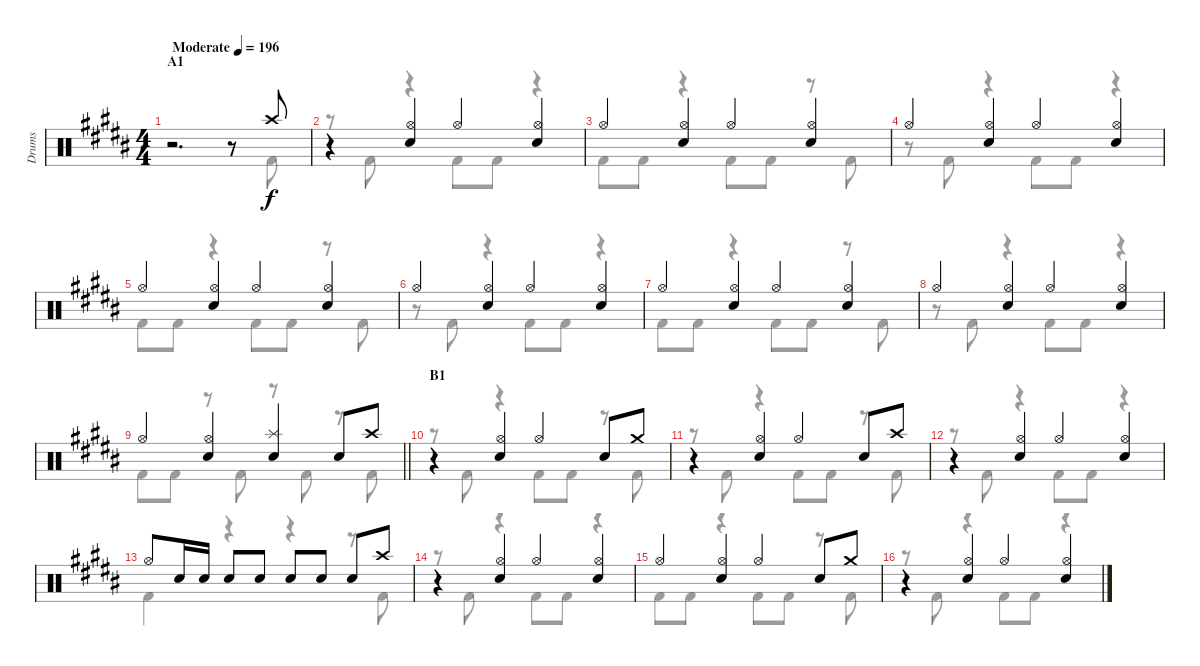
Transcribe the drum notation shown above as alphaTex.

\track ("Drums" "Drums") {instrument percussion}
\staff {score}
\articulation defaults
\voice
\ts (4 4)
\section ("" "A1")
\tempo (196 "Moderate")
\clef neutral
\ks b
r.2{d dy f} r.8 "Crash high (hit)".8 |
r.4 ("Hi-Hat (open)" "Electric Snare (hit)").4 "Hi-Hat (open)".4 ("Hi-Hat (open)" "Electric Snare (hit)").4 |
"Hi-Hat (open)".4 ("Hi-Hat (open)" "Electric Snare (hit)").4 "Hi-Hat (open)".4 ("Hi-Hat (open)" "Electric Snare (hit)").4 |
"Hi-Hat (open)".4 ("Hi-Hat (open)" "Electric Snare (hit)").4 "Hi-Hat (open)".4 ("Hi-Hat (open)" "Electric Snare (hit)").4 |
"Hi-Hat (open)".4 ("Hi-Hat (open)" "Electric Snare (hit)").4 "Hi-Hat (open)".4 ("Hi-Hat (open)" "Electric Snare (hit)").4 |
"Hi-Hat (open)".4 ("Hi-Hat (open)" "Electric Snare (hit)").4 "Hi-Hat (open)".4 ("Hi-Hat (open)" "Electric Snare (hit)").4 |
"Hi-Hat (open)".4 ("Hi-Hat (open)" "Electric Snare (hit)").4 "Hi-Hat (open)".4 ("Hi-Hat (open)" "Electric Snare (hit)").4 |
"Hi-Hat (open)".4 ("Hi-Hat (open)" "Electric Snare (hit)").4 "Hi-Hat (open)".4 ("Hi-Hat (open)" "Electric Snare (hit)").4 |
\barLineRight lightlight "Hi-Hat (open)".4
("Hi-Hat (open)" "Electric Snare (hit)").4 ("Splash (hit)" "Electric Snare (hit)").4 "Electric Snare (hit)".8 "Crash high (hit)".8 |
\section ("" "B1")
r.4 ("Hi-Hat (open)" "Electric Snare (hit)").4 "Hi-Hat (open)".4 "Electric Snare (hit)".8 "Crash medium (hit)".8 |
r.4 ("Hi-Hat (open)" "Electric Snare (hit)").4 "Hi-Hat (open)".4 "Electric Snare (hit)".8 "Crash high (hit)".8 |
r.4 ("Hi-Hat (open)" "Electric Snare (hit)").4 "Hi-Hat (open)".4 ("Hi-Hat (open)" "Electric Snare (hit)").4 |
"Hi-Hat (open)".8 "Electric Snare (hit)".16 "Electric Snare (hit)".16 "Electric Snare (hit)".8 "Electric Snare (hit)".8 "Electric Snare (hit)".8 "Electric Snare (hit)".8 "Electric Snare (hit)".8 "Crash high (hit)".8 |
r.4 ("Hi-Hat (open)" "Electric Snare (hit)").4 "Hi-Hat (open)".4 ("Hi-Hat (open)" "Electric Snare (hit)").4 |
"Hi-Hat (open)".4 ("Hi-Hat (open)" "Electric Snare (hit)").4 "Hi-Hat (open)".4 "Electric Snare (hit)".8 "Crash medium (hit)".8 |
r.4 ("Hi-Hat (open)" "Electric Snare (hit)").4 "Hi-Hat (open)".4 ("Hi-Hat (open)" "Electric Snare (hit)").4
\voice
\clef neutral
\ottava regular
\simile none
\ks b
r.2{d dy f} r.8 "Kick (hit) 2".8 |
r.8 "Kick (hit) 2".8 r.4 "Kick (hit) 2".8 "Kick (hit) 2".8 r.4 |
"Kick (hit) 2".8 "Kick (hit) 2".8 r.4 "Kick (hit) 2".8 "Kick (hit) 2".8 r.8 "Kick (hit) 2".8 |
r.8 "Kick (hit) 2".8 r.4 "Kick (hit) 2".8 "Kick (hit) 2".8 r.4 |
"Kick (hit) 2".8 "Kick (hit) 2".8 r.4 "Kick (hit) 2".8 "Kick (hit) 2".8 r.8 "Kick (hit) 2".8 |
r.8 "Kick (hit) 2".8 r.4 "Kick (hit) 2".8 "Kick (hit) 2".8 r.4 |
"Kick (hit) 2".8 "Kick (hit) 2".8 r.4 "Kick (hit) 2".8 "Kick (hit) 2".8 r.8 "Kick (hit) 2".8 |
r.8 "Kick (hit) 2".8 r.4 "Kick (hit) 2".8 "Kick (hit) 2".8 r.4 |
\barLineRight lightlight "Kick (hit) 2".8 "Kick (hit) 2".8
r.8 "Kick (hit) 2".8 r.8 "Kick (hit) 2".8 r.8 "Kick (hit) 2".8 |
r.8 "Kick (hit) 2".8 r.4 "Kick (hit) 2".8 "Kick (hit) 2".8 r.8 "Kick (hit) 2".8 |
r.8 "Kick (hit) 2".8 r.4 "Kick (hit) 2".8 "Kick (hit) 2".8 r.8 "Kick (hit) 2".8 |
r.8 "Kick (hit) 2".8 r.4 "Kick (hit) 2".8 "Kick (hit) 2".8 r.4 |
"Kick (hit) 2".4 r.4 r.4 r.8 "Kick (hit) 2".8 |
r.8 "Kick (hit) 2".8 r.4 "Kick (hit) 2".8 "Kick (hit) 2".8 r.4 |
"Kick (hit) 2".8 "Kick (hit) 2".8 r.4 "Kick (hit) 2".8 "Kick (hit) 2".8 r.8 "Kick (hit) 2".8 |
r.8 "Kick (hit) 2".8 r.4 "Kick (hit) 2".8 "Kick (hit) 2".8 r.4
